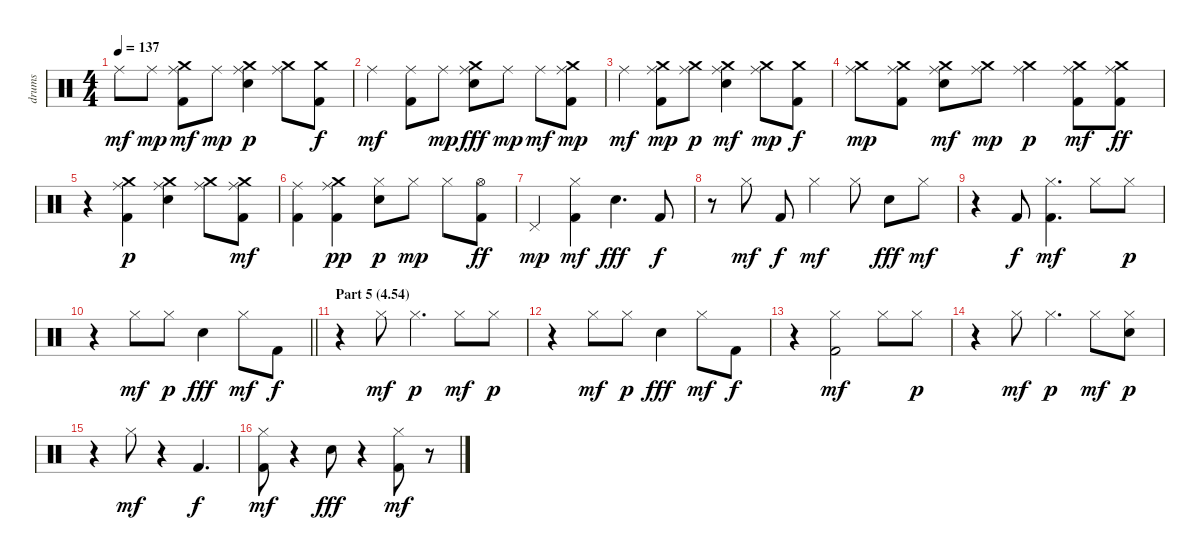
\track ("drums" "drums") {instrument percussion}
\staff {score}
\articulation defaults
\ts (4 4)
\tempo 137
\clef neutral
\ks c "Ride (middle)".8{dy mf} "Ride (middle)".8{dy mp}
("Crash medium (hit)" "Kick (hit) 2" "Ride (middle)").8{dy mf} "Ride (middle)".8{dy mp} ("Ride (middle)" "Electric Snare (hit)" "Crash medium (hit)").4{dy p} ("Ride (middle)" "Crash medium (hit)").8 ("Crash medium (hit)" "Kick (hit) 2").8{dy f} |
"Ride (middle)".4{dy mf} ("Ride (middle)" "Kick (hit) 2").8 "Ride (middle)".8{dy mp} ("Crash medium (hit)" "Ride (middle)" "Electric Snare (hit)").8{dy fff} "Ride (middle)".8{dy mp} "Ride (middle)".8{dy mf} ("Crash medium (hit)" "Kick (hit) 2" "Ride (middle)").8{dy mp} |
"Ride (middle)".4{dy mf} ("Ride (middle)" "Kick (hit) 2" "Crash medium (hit)").8{dy mp} ("Ride (middle)" "Crash medium (hit)").8{dy p} ("Crash medium (hit)" "Electric Snare (hit)" "Ride (middle)").4{dy mf} ("Ride (middle)" "Crash medium (hit)").8{dy mp} ("Crash medium (hit)" "Kick (hit) 2").8{dy f} |
("Ride (middle)" "Crash medium (hit)").8{dy mp} ("Kick (hit) 2" "Crash medium (hit)" "Ride (middle)").8 ("Electric Snare (hit)" "Crash medium (hit)" "Ride (middle)").8{dy mf} ("Crash medium (hit)" "Ride (middle)").8{dy mp} ("Ride (middle)" "Crash medium (hit)").4{dy p} ("Ride (middle)" "Crash medium (hit)" "Kick (hit) 2").8{dy mf} ("Crash medium (hit)" "Kick (hit) 2" "Ride (middle)").8{dy ff} |
r.4 ("Kick (hit) 2" "Ride (middle)" "Crash medium (hit)").4{dy p} ("Electric Snare (hit)" "Ride (middle)" "Crash medium (hit)").4 ("Ride (middle)" "Crash medium (hit)").8 ("Crash medium (hit)" "Kick (hit) 2" "Ride (middle)").8{dy mf} |
("Kick (hit) 2" "Ride (middle)").4 ("Kick (hit) 2" "Ride (middle)" "Crash medium (hit)").4{dy pp} ("Electric Snare (hit)" "Hi-Hat (closed)").8{dy p} "Hi-Hat (closed)".8{dy mp} "Hi-Hat (closed)".8 ("Hi-Hat (open)" "Kick (hit) 2").8{dy ff} |
"Pedal Hi-Hat (hit)".4{dy mp} ("Kick (hit) 2" "Hi-Hat (closed)").4{dy mf} "Electric Snare (hit)".4{d dy fff} "Kick (hit) 2".8{dy f} |
r.8 "Hi-Hat (closed)".8{dy mf} "Kick (hit) 2".8{dy f} "Hi-Hat (closed)".4{dy mf} "Hi-Hat (closed)".8 "Electric Snare (hit)".8{dy fff} "Hi-Hat (closed)".8{dy mf} |
r.4 "Kick (hit) 2".8{dy f} ("Kick (hit) 2" "Hi-Hat (closed)").4{d dy mf} "Hi-Hat (closed)".8 "Hi-Hat (closed)".8{dy p} |
\barLineRight lightlight
r.4 "Hi-Hat (closed)".8{dy mf} "Hi-Hat (closed)".8{dy p} "Electric Snare (hit)".4{dy fff} "Hi-Hat (closed)".8{dy mf} "Kick (hit) 2".8{dy f} |
\section ("" "Part 5 (4.54)")
r.4 "Hi-Hat (closed)".8{dy mf} "Hi-Hat (closed)".4{d dy p} "Hi-Hat (closed)".8{dy mf} "Hi-Hat (closed)".8{dy p} |
r.4 "Hi-Hat (closed)".8{dy mf} "Hi-Hat (closed)".8{dy p} "Electric Snare (hit)".4{dy fff} "Hi-Hat (closed)".8{dy mf} "Kick (hit) 2".8{dy f} |
r.4 ("Kick (hit) 2" "Hi-Hat (closed)").2{dy mf} "Hi-Hat (closed)".8 "Hi-Hat (closed)".8{dy p} |
r.4 "Hi-Hat (closed)".8{dy mf} "Hi-Hat (closed)".4{d dy p} "Hi-Hat (closed)".8{dy mf} ("Electric Snare (hit)" "Hi-Hat (closed)").8{dy p} |
r.4 "Hi-Hat (closed)".8{dy mf} r.4 "Kick (hit) 2".4{d dy f} |
("Hi-Hat (closed)" "Kick (hit) 2").8{dy mf} r.4 "Electric Snare (hit)".8{dy fff} r.4 ("Hi-Hat (closed)" "Kick (hit) 2").8{dy mf} r.8
